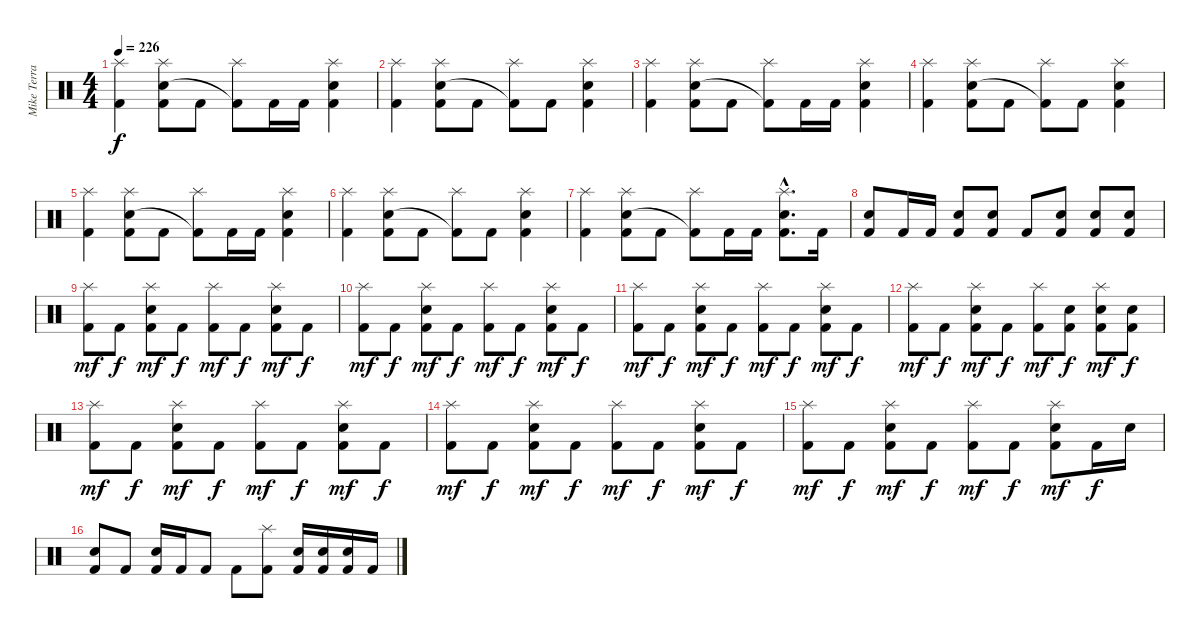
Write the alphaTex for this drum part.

\track ("Mike Terrana" "Mike Terra") {instrument percussion}
\staff {score}
\articulation defaults
\ts (4 4)
\tempo 226
\clef neutral
\ks c
("Splash (hit)" "Kick (hit) 2").4{dy f} ("Splash (hit)" "Snare (hit) 2" "Kick (hit) 2").8 "Kick (hit) 2".8 ("Splash (hit)" "Kick (hit) 2"{t}).8 "Kick (hit) 2".16 "Kick (hit) 2".16 ("Splash (hit)" "Snare (hit) 2" "Kick (hit) 2").4 |
("Splash (hit)" "Kick (hit) 2").4 ("Splash (hit)" "Snare (hit) 2" "Kick (hit) 2").8 "Kick (hit) 2".8 ("Splash (hit)" "Kick (hit) 2"{t}).8 "Kick (hit) 2".8 ("Splash (hit)" "Snare (hit) 2" "Kick (hit) 2").4 |
("Splash (hit)" "Kick (hit) 2").4 ("Splash (hit)" "Snare (hit) 2" "Kick (hit) 2").8 "Kick (hit) 2".8 ("Splash (hit)" "Kick (hit) 2"{t}).8 "Kick (hit) 2".16 "Kick (hit) 2".16 ("Splash (hit)" "Snare (hit) 2" "Kick (hit) 2").4 |
("Splash (hit)" "Kick (hit) 2").4 ("Splash (hit)" "Snare (hit) 2" "Kick (hit) 2").8 "Kick (hit) 2".8 ("Splash (hit)" "Kick (hit) 2"{t}).8 "Kick (hit) 2".8 ("Splash (hit)" "Snare (hit) 2" "Kick (hit) 2").4 |
("Splash (hit)" "Kick (hit) 2").4 ("Splash (hit)" "Snare (hit) 2" "Kick (hit) 2").8 "Kick (hit) 2".8 ("Splash (hit)" "Kick (hit) 2"{t}).8 "Kick (hit) 2".16 "Kick (hit) 2".16 ("Splash (hit)" "Snare (hit) 2" "Kick (hit) 2").4 |
("Splash (hit)" "Kick (hit) 2").4 ("Splash (hit)" "Snare (hit) 2" "Kick (hit) 2").8 "Kick (hit) 2".8 ("Splash (hit)" "Kick (hit) 2"{t}).8 "Kick (hit) 2".8 ("Splash (hit)" "Snare (hit) 2" "Kick (hit) 2").4 |
("Splash (hit)" "Kick (hit) 2").4 ("Splash (hit)" "Snare (hit) 2" "Kick (hit) 2").8 "Kick (hit) 2".8 ("Splash (hit)" "Kick (hit) 2"{t}).8 "Kick (hit) 2".16 "Kick (hit) 2".16 ("Splash (hit)"{hac} "Snare (hit) 2"{hac} "Kick (hit) 2"{hac}).8{d} "Kick (hit) 2".16 |
("Snare (hit) 2" "Kick (hit) 2").8 "Kick (hit) 2".16 "Kick (hit) 2".16 ("Snare (hit) 2" "Kick (hit) 2").8 ("Snare (hit) 2" "Kick (hit) 2").8 "Kick (hit) 2".8 ("Snare (hit) 2" "Kick (hit) 2").8 ("Snare (hit) 2" "Kick (hit) 2").8 ("Snare (hit) 2" "Kick (hit) 2").8 |
("Splash (hit)" "Kick (hit) 2").8{dy mf} "Kick (hit) 2".8{dy f} ("Splash (hit)" "Snare (hit) 2" "Kick (hit) 2").8{dy mf} "Kick (hit) 2".8{dy f} ("Splash (hit)" "Kick (hit) 2").8{dy mf} "Kick (hit) 2".8{dy f} ("Splash (hit)" "Snare (hit) 2" "Kick (hit) 2").8{dy mf} "Kick (hit) 2".8{dy f} |
("Splash (hit)" "Kick (hit) 2").8{dy mf} "Kick (hit) 2".8{dy f} ("Splash (hit)" "Snare (hit) 2" "Kick (hit) 2").8{dy mf} "Kick (hit) 2".8{dy f} ("Splash (hit)" "Kick (hit) 2").8{dy mf} "Kick (hit) 2".8{dy f} ("Splash (hit)" "Snare (hit) 2" "Kick (hit) 2").8{dy mf} "Kick (hit) 2".8{dy f} |
("Splash (hit)" "Kick (hit) 2").8{dy mf} "Kick (hit) 2".8{dy f} ("Splash (hit)" "Snare (hit) 2" "Kick (hit) 2").8{dy mf} "Kick (hit) 2".8{dy f} ("Splash (hit)" "Kick (hit) 2").8{dy mf} "Kick (hit) 2".8{dy f} ("Splash (hit)" "Snare (hit) 2" "Kick (hit) 2").8{dy mf} "Kick (hit) 2".8{dy f} |
("Splash (hit)" "Kick (hit) 2").8{dy mf} "Kick (hit) 2".8{dy f} ("Splash (hit)" "Snare (hit) 2" "Kick (hit) 2").8{dy mf} "Kick (hit) 2".8{dy f} ("Splash (hit)" "Kick (hit) 2").8{dy mf} ("Snare (hit) 2" "Kick (hit) 2").8{dy f} ("Splash (hit)" "Snare (hit) 2" "Kick (hit) 2").8{dy mf} ("Snare (hit) 2" "Kick (hit) 2").8{dy f} |
("Splash (hit)" "Kick (hit) 2").8{dy mf} "Kick (hit) 2".8{dy f} ("Splash (hit)" "Snare (hit) 2" "Kick (hit) 2").8{dy mf} "Kick (hit) 2".8{dy f} ("Splash (hit)" "Kick (hit) 2").8{dy mf} "Kick (hit) 2".8{dy f} ("Splash (hit)" "Snare (hit) 2" "Kick (hit) 2").8{dy mf} "Kick (hit) 2".8{dy f} |
("Splash (hit)" "Kick (hit) 2").8{dy mf} "Kick (hit) 2".8{dy f} ("Splash (hit)" "Snare (hit) 2" "Kick (hit) 2").8{dy mf} "Kick (hit) 2".8{dy f} ("Splash (hit)" "Kick (hit) 2").8{dy mf} "Kick (hit) 2".8{dy f} ("Splash (hit)" "Snare (hit) 2" "Kick (hit) 2").8{dy mf} "Kick (hit) 2".8{dy f} |
("Splash (hit)" "Kick (hit) 2").8{dy mf} "Kick (hit) 2".8{dy f} ("Splash (hit)" "Snare (hit) 2" "Kick (hit) 2").8{dy mf} "Kick (hit) 2".8{dy f} ("Splash (hit)" "Kick (hit) 2").8{dy mf} "Kick (hit) 2".8{dy f} ("Splash (hit)" "Snare (hit) 2" "Kick (hit) 2").8{dy mf} "Kick (hit) 2".16{dy f} "Snare (hit) 2".16 |
("Snare (hit) 2" "Kick (hit) 2").8 "Kick (hit) 2".8 ("Snare (hit) 2" "Kick (hit) 2").16 "Kick (hit) 2".16 "Kick (hit) 2".8 "Kick (hit) 2".8 ("Splash (hit)" "Kick (hit) 2").8 ("Snare (hit) 2" "Kick (hit) 2").16 ("Snare (hit) 2" "Kick (hit) 2").16 ("Snare (hit) 2" "Kick (hit) 2").16 "Kick (hit) 2".16
